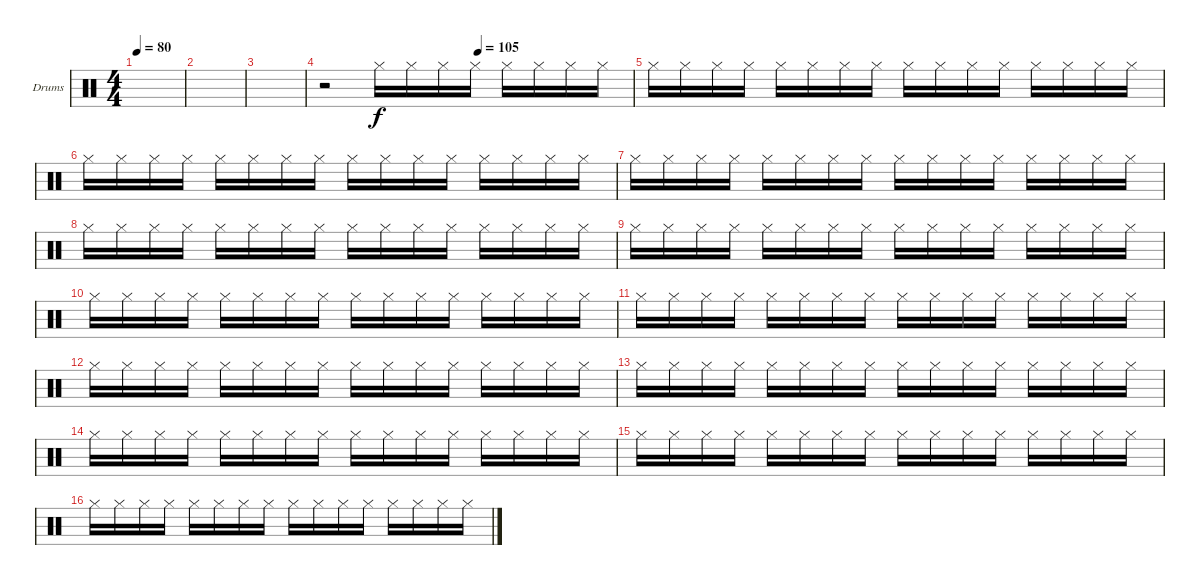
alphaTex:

\bracketExtendMode groupsimilarinstruments
\firstSystemTrackNameOrientation horizontal
\otherSystemsTrackNameOrientation horizontal
\track ("Ximbau" "Drums") {instrument percussion}
\staff {score}
\articulation defaults
\ts (4 4)
\tempo 80
\clef neutral
\scale
0.333333
\ks c
|
\scale
0.333333 |
\scale
0.333333 |
\tempo (105 0.5)
\scale
0.333333 r.2 "Hi-Hat (closed)".16 "Hi-Hat (closed)".16 "Hi-Hat (closed)".16 "Hi-Hat (closed)".16 "Hi-Hat (closed)".16 "Hi-Hat (closed)".16 "Hi-Hat (closed)".16 "Hi-Hat (closed)".16 |
\scale
0.333333 "Hi-Hat (closed)".16 "Hi-Hat (closed)".16 "Hi-Hat (closed)".16 "Hi-Hat (closed)".16 "Hi-Hat (closed)".16 "Hi-Hat (closed)".16 "Hi-Hat (closed)".16 "Hi-Hat (closed)".16 "Hi-Hat (closed)".16 "Hi-Hat (closed)".16 "Hi-Hat (closed)".16 "Hi-Hat (closed)".16 "Hi-Hat (closed)".16 "Hi-Hat (closed)".16 "Hi-Hat (closed)".16 "Hi-Hat (closed)".16 |
\scale
0.333333 "Hi-Hat (closed)".16 "Hi-Hat (closed)".16 "Hi-Hat (closed)".16 "Hi-Hat (closed)".16 "Hi-Hat (closed)".16 "Hi-Hat (closed)".16 "Hi-Hat (closed)".16 "Hi-Hat (closed)".16 "Hi-Hat (closed)".16 "Hi-Hat (closed)".16 "Hi-Hat (closed)".16 "Hi-Hat (closed)".16 "Hi-Hat (closed)".16 "Hi-Hat (closed)".16 "Hi-Hat (closed)".16 "Hi-Hat (closed)".16 |
\scale
0.333333 "Hi-Hat (closed)".16 "Hi-Hat (closed)".16 "Hi-Hat (closed)".16 "Hi-Hat (closed)".16 "Hi-Hat (closed)".16 "Hi-Hat (closed)".16 "Hi-Hat (closed)".16 "Hi-Hat (closed)".16 "Hi-Hat (closed)".16 "Hi-Hat (closed)".16 "Hi-Hat (closed)".16 "Hi-Hat (closed)".16 "Hi-Hat (closed)".16 "Hi-Hat (closed)".16 "Hi-Hat (closed)".16 "Hi-Hat (closed)".16 |
\scale
0.333333 "Hi-Hat (closed)".16 "Hi-Hat (closed)".16 "Hi-Hat (closed)".16 "Hi-Hat (closed)".16 "Hi-Hat (closed)".16 "Hi-Hat (closed)".16 "Hi-Hat (closed)".16 "Hi-Hat (closed)".16 "Hi-Hat (closed)".16 "Hi-Hat (closed)".16 "Hi-Hat (closed)".16 "Hi-Hat (closed)".16 "Hi-Hat (closed)".16 "Hi-Hat (closed)".16 "Hi-Hat (closed)".16 "Hi-Hat (closed)".16 |
\scale
0.333333 "Hi-Hat (closed)".16 "Hi-Hat (closed)".16 "Hi-Hat (closed)".16 "Hi-Hat (closed)".16 "Hi-Hat (closed)".16 "Hi-Hat (closed)".16 "Hi-Hat (closed)".16 "Hi-Hat (closed)".16 "Hi-Hat (closed)".16 "Hi-Hat (closed)".16 "Hi-Hat (closed)".16 "Hi-Hat (closed)".16 "Hi-Hat (closed)".16 "Hi-Hat (closed)".16 "Hi-Hat (closed)".16 "Hi-Hat (closed)".16 |
\scale
0.333333 "Hi-Hat (closed)".16 "Hi-Hat (closed)".16 "Hi-Hat (closed)".16 "Hi-Hat (closed)".16 "Hi-Hat (closed)".16 "Hi-Hat (closed)".16 "Hi-Hat (closed)".16 "Hi-Hat (closed)".16 "Hi-Hat (closed)".16 "Hi-Hat (closed)".16 "Hi-Hat (closed)".16 "Hi-Hat (closed)".16 "Hi-Hat (closed)".16 "Hi-Hat (closed)".16 "Hi-Hat (closed)".16 "Hi-Hat (closed)".16 |
\scale
0.333333 "Hi-Hat (closed)".16 "Hi-Hat (closed)".16 "Hi-Hat (closed)".16 "Hi-Hat (closed)".16 "Hi-Hat (closed)".16 "Hi-Hat (closed)".16 "Hi-Hat (closed)".16 "Hi-Hat (closed)".16 "Hi-Hat (closed)".16 "Hi-Hat (closed)".16 "Hi-Hat (closed)".16 "Hi-Hat (closed)".16 "Hi-Hat (closed)".16 "Hi-Hat (closed)".16 "Hi-Hat (closed)".16 "Hi-Hat (closed)".16 |
\scale
0.333333 "Hi-Hat (closed)".16 "Hi-Hat (closed)".16 "Hi-Hat (closed)".16 "Hi-Hat (closed)".16 "Hi-Hat (closed)".16 "Hi-Hat (closed)".16 "Hi-Hat (closed)".16 "Hi-Hat (closed)".16 "Hi-Hat (closed)".16 "Hi-Hat (closed)".16 "Hi-Hat (closed)".16 "Hi-Hat (closed)".16 "Hi-Hat (closed)".16 "Hi-Hat (closed)".16 "Hi-Hat (closed)".16 "Hi-Hat (closed)".16 |
\scale
0.333333 "Hi-Hat (closed)".16 "Hi-Hat (closed)".16 "Hi-Hat (closed)".16 "Hi-Hat (closed)".16 "Hi-Hat (closed)".16 "Hi-Hat (closed)".16 "Hi-Hat (closed)".16 "Hi-Hat (closed)".16 "Hi-Hat (closed)".16 "Hi-Hat (closed)".16 "Hi-Hat (closed)".16 "Hi-Hat (closed)".16 "Hi-Hat (closed)".16 "Hi-Hat (closed)".16 "Hi-Hat (closed)".16 "Hi-Hat (closed)".16 |
\scale
0.333333 "Hi-Hat (closed)".16 "Hi-Hat (closed)".16 "Hi-Hat (closed)".16 "Hi-Hat (closed)".16 "Hi-Hat (closed)".16 "Hi-Hat (closed)".16 "Hi-Hat (closed)".16 "Hi-Hat (closed)".16 "Hi-Hat (closed)".16 "Hi-Hat (closed)".16 "Hi-Hat (closed)".16 "Hi-Hat (closed)".16 "Hi-Hat (closed)".16 "Hi-Hat (closed)".16 "Hi-Hat (closed)".16 "Hi-Hat (closed)".16 |
\scale
0.333333 "Hi-Hat (closed)".16 "Hi-Hat (closed)".16 "Hi-Hat (closed)".16 "Hi-Hat (closed)".16 "Hi-Hat (closed)".16 "Hi-Hat (closed)".16 "Hi-Hat (closed)".16 "Hi-Hat (closed)".16 "Hi-Hat (closed)".16 "Hi-Hat (closed)".16 "Hi-Hat (closed)".16 "Hi-Hat (closed)".16 "Hi-Hat (closed)".16 "Hi-Hat (closed)".16 "Hi-Hat (closed)".16 "Hi-Hat (closed)".16 |
\scale
0.333333 "Hi-Hat (closed)".16 "Hi-Hat (closed)".16 "Hi-Hat (closed)".16 "Hi-Hat (closed)".16 "Hi-Hat (closed)".16 "Hi-Hat (closed)".16 "Hi-Hat (closed)".16 "Hi-Hat (closed)".16 "Hi-Hat (closed)".16 "Hi-Hat (closed)".16 "Hi-Hat (closed)".16 "Hi-Hat (closed)".16 "Hi-Hat (closed)".16 "Hi-Hat (closed)".16 "Hi-Hat (closed)".16 "Hi-Hat (closed)".16
